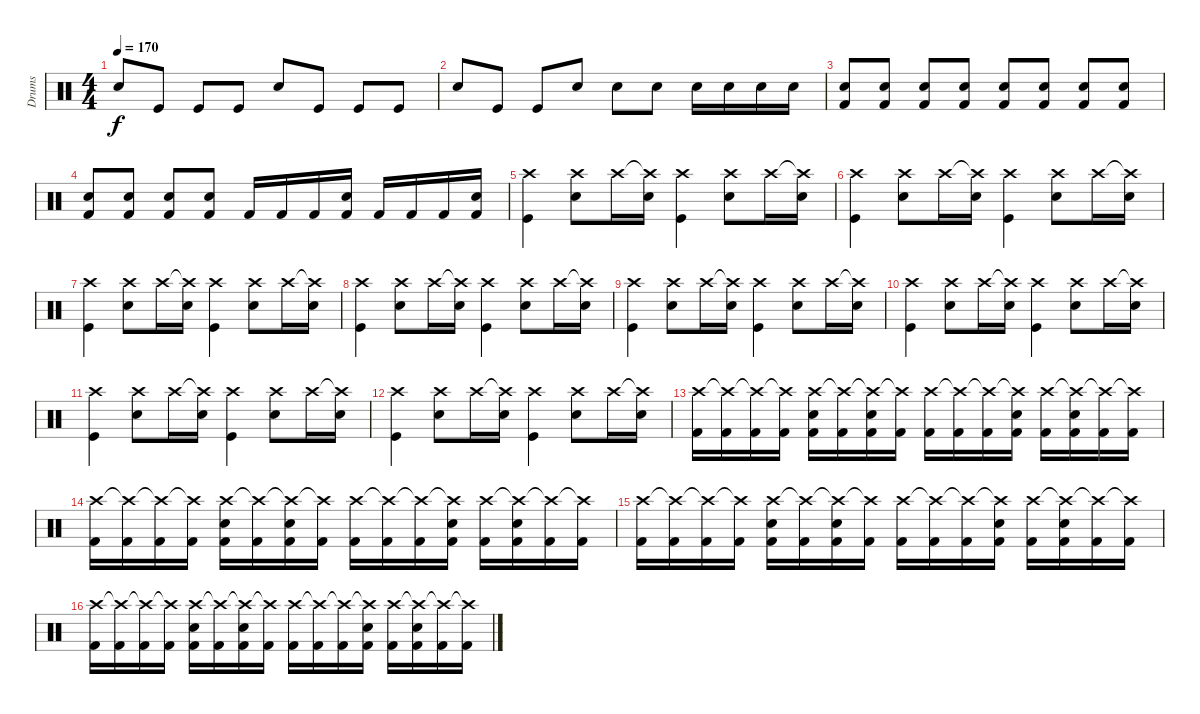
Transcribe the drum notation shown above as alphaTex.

\track ("Drums" "Drums") {instrument percussion}
\staff {score}
\articulation defaults
\ts (4 4)
\tempo 170
\clef neutral
\ks c "Snare (hit) 2".8{dy f} "Kick (hit)".8 "Kick (hit)".8 "Kick (hit)".8 "Snare (hit) 2".8 "Kick (hit)".8 "Kick (hit)".8 "Kick (hit)".8
|
"Snare (hit) 2".8 "Kick (hit)".8 "Kick (hit)".8 "Snare (hit) 2".8 "Snare (hit) 2".8 "Snare (hit) 2".8 "Snare (hit) 2".16 "Snare (hit) 2".16 "Snare (hit) 2".16 "Snare (hit) 2".16 |
("Snare (hit) 2" "Kick (hit) 2").8 ("Snare (hit) 2" "Kick (hit) 2").8 ("Snare (hit) 2" "Kick (hit) 2").8 ("Snare (hit) 2" "Kick (hit) 2").8 ("Snare (hit) 2" "Kick (hit) 2").8 ("Snare (hit) 2" "Kick (hit) 2").8 ("Snare (hit) 2" "Kick (hit) 2").8 ("Snare (hit) 2" "Kick (hit) 2").8 |
("Snare (hit) 2" "Kick (hit) 2").8 ("Snare (hit) 2" "Kick (hit) 2").8 ("Snare (hit) 2" "Kick (hit) 2").8 ("Snare (hit) 2" "Kick (hit) 2").8 "Kick (hit) 2".16 "Kick (hit) 2".16 "Kick (hit) 2".16 ("Snare (hit) 2" "Kick (hit) 2").16 "Kick (hit) 2".16 "Kick (hit) 2".16 "Kick (hit) 2".16 ("Snare (hit) 2" "Kick (hit) 2").16 |
("Crash high (hit)" "Kick (hit)").4 ("Crash high (hit)" "Snare (hit) 2").8 "Crash high (hit)".16 ("Crash high (hit)"{t} "Snare (hit) 2").16 ("Crash high (hit)" "Kick (hit)").4 ("Crash high (hit)" "Snare (hit) 2").8 "Crash high (hit)".16 ("Crash high (hit)"{t} "Snare (hit) 2").16 |
("Crash high (hit)" "Kick (hit)").4 ("Crash high (hit)" "Snare (hit) 2").8 "Crash high (hit)".16 ("Crash high (hit)"{t} "Snare (hit) 2").16 ("Crash high (hit)" "Kick (hit)").4 ("Crash high (hit)" "Snare (hit) 2").8 "Crash high (hit)".16 ("Crash high (hit)"{t} "Snare (hit) 2").16 |
("Crash high (hit)" "Kick (hit)").4 ("Crash high (hit)" "Snare (hit) 2").8 "Crash high (hit)".16 ("Crash high (hit)"{t} "Snare (hit) 2").16 ("Crash high (hit)" "Kick (hit)").4 ("Crash high (hit)" "Snare (hit) 2").8 "Crash high (hit)".16 ("Crash high (hit)"{t} "Snare (hit) 2").16 |
("Crash high (hit)" "Kick (hit)").4 ("Crash high (hit)" "Snare (hit) 2").8 "Crash high (hit)".16 ("Crash high (hit)"{t} "Snare (hit) 2").16 ("Crash high (hit)" "Kick (hit)").4 ("Crash high (hit)" "Snare (hit) 2").8 "Crash high (hit)".16 ("Crash high (hit)"{t} "Snare (hit) 2").16 |
("Crash high (hit)" "Kick (hit)").4 ("Crash high (hit)" "Snare (hit) 2").8 "Crash high (hit)".16 ("Crash high (hit)"{t} "Snare (hit) 2").16 ("Crash high (hit)" "Kick (hit)").4 ("Crash high (hit)" "Snare (hit) 2").8 "Crash high (hit)".16 ("Crash high (hit)"{t} "Snare (hit) 2").16 |
("Crash high (hit)" "Kick (hit)").4 ("Crash high (hit)" "Snare (hit) 2").8 "Crash high (hit)".16 ("Crash high (hit)"{t} "Snare (hit) 2").16 ("Crash high (hit)" "Kick (hit)").4 ("Crash high (hit)" "Snare (hit) 2").8 "Crash high (hit)".16 ("Crash high (hit)"{t} "Snare (hit) 2").16 |
("Crash high (hit)" "Kick (hit)").4 ("Crash high (hit)" "Snare (hit) 2").8 "Crash high (hit)".16 ("Crash high (hit)"{t} "Snare (hit) 2").16 ("Crash high (hit)" "Kick (hit)").4 ("Crash high (hit)" "Snare (hit) 2").8 "Crash high (hit)".16 ("Crash high (hit)"{t} "Snare (hit) 2").16 |
("Crash high (hit)" "Kick (hit)").4 ("Crash high (hit)" "Snare (hit) 2").8 "Crash high (hit)".16 ("Crash high (hit)"{t} "Snare (hit) 2").16 ("Crash high (hit)" "Kick (hit)").4 ("Crash high (hit)" "Snare (hit) 2").8 "Crash high (hit)".16 ("Crash high (hit)"{t} "Snare (hit) 2").16 |
("Crash high (hit)" "Kick (hit) 2").16 ("Crash high (hit)"{t} "Kick (hit) 2").16 ("Crash high (hit)"{t} "Kick (hit) 2").16 ("Crash high (hit)"{t} "Kick (hit) 2").16 ("Crash high (hit)" "Snare (hit) 2" "Kick (hit) 2").16 ("Crash high (hit)"{t} "Kick (hit) 2").16 ("Crash high (hit)"{t} "Snare (hit) 2" "Kick (hit) 2").16 ("Crash high (hit)"{t} "Kick (hit) 2").16 ("Crash high (hit)" "Kick (hit) 2").16 ("Crash high (hit)"{t} "Kick (hit) 2").16 ("Crash high (hit)"{t} "Kick (hit) 2").16 ("Crash high (hit)"{t} "Snare (hit) 2" "Kick (hit) 2").16 ("Crash high (hit)" "Kick (hit) 2").16 ("Crash high (hit)"{t} "Snare (hit) 2" "Kick (hit) 2").16 ("Crash high (hit)"{t} "Kick (hit) 2").16 ("Crash high (hit)"{t} "Kick (hit) 2").16 |
("Crash high (hit)" "Kick (hit) 2").16 ("Crash high (hit)"{t} "Kick (hit) 2").16 ("Crash high (hit)"{t} "Kick (hit) 2").16 ("Crash high (hit)"{t} "Kick (hit) 2").16 ("Crash high (hit)" "Snare (hit) 2" "Kick (hit) 2").16 ("Crash high (hit)"{t} "Kick (hit) 2").16 ("Crash high (hit)"{t} "Snare (hit) 2" "Kick (hit) 2").16 ("Crash high (hit)"{t} "Kick (hit) 2").16 ("Crash high (hit)" "Kick (hit) 2").16 ("Crash high (hit)"{t} "Kick (hit) 2").16 ("Crash high (hit)"{t} "Kick (hit) 2").16 ("Crash high (hit)"{t} "Snare (hit) 2" "Kick (hit) 2").16 ("Crash high (hit)" "Kick (hit) 2").16 ("Crash high (hit)"{t} "Snare (hit) 2" "Kick (hit) 2").16 ("Crash high (hit)"{t} "Kick (hit) 2").16 ("Crash high (hit)"{t} "Kick (hit) 2").16 |
("Crash high (hit)" "Kick (hit) 2").16 ("Crash high (hit)"{t} "Kick (hit) 2").16 ("Crash high (hit)"{t} "Kick (hit) 2").16 ("Crash high (hit)"{t} "Kick (hit) 2").16 ("Crash high (hit)" "Snare (hit) 2" "Kick (hit) 2").16 ("Crash high (hit)"{t} "Kick (hit) 2").16 ("Crash high (hit)"{t} "Snare (hit) 2" "Kick (hit) 2").16 ("Crash high (hit)"{t} "Kick (hit) 2").16 ("Crash high (hit)" "Kick (hit) 2").16 ("Crash high (hit)"{t} "Kick (hit) 2").16 ("Crash high (hit)"{t} "Kick (hit) 2").16 ("Crash high (hit)"{t} "Snare (hit) 2" "Kick (hit) 2").16 ("Crash high (hit)" "Kick (hit) 2").16 ("Crash high (hit)"{t} "Snare (hit) 2" "Kick (hit) 2").16 ("Crash high (hit)"{t} "Kick (hit) 2").16 ("Crash high (hit)"{t} "Kick (hit) 2").16 |
("Crash high (hit)" "Kick (hit) 2").16 ("Crash high (hit)"{t} "Kick (hit) 2").16 ("Crash high (hit)"{t} "Kick (hit) 2").16 ("Crash high (hit)"{t} "Kick (hit) 2").16 ("Crash high (hit)" "Snare (hit) 2" "Kick (hit) 2").16 ("Crash high (hit)"{t} "Kick (hit) 2").16 ("Crash high (hit)"{t} "Snare (hit) 2" "Kick (hit) 2").16 ("Crash high (hit)"{t} "Kick (hit) 2").16 ("Crash high (hit)" "Kick (hit) 2").16 ("Crash high (hit)"{t} "Kick (hit) 2").16 ("Crash high (hit)"{t} "Kick (hit) 2").16 ("Crash high (hit)"{t} "Snare (hit) 2" "Kick (hit) 2").16 ("Crash high (hit)" "Kick (hit) 2").16 ("Crash high (hit)"{t} "Snare (hit) 2" "Kick (hit) 2").16 ("Crash high (hit)"{t} "Kick (hit) 2").16 ("Crash high (hit)"{t} "Kick (hit) 2").16
